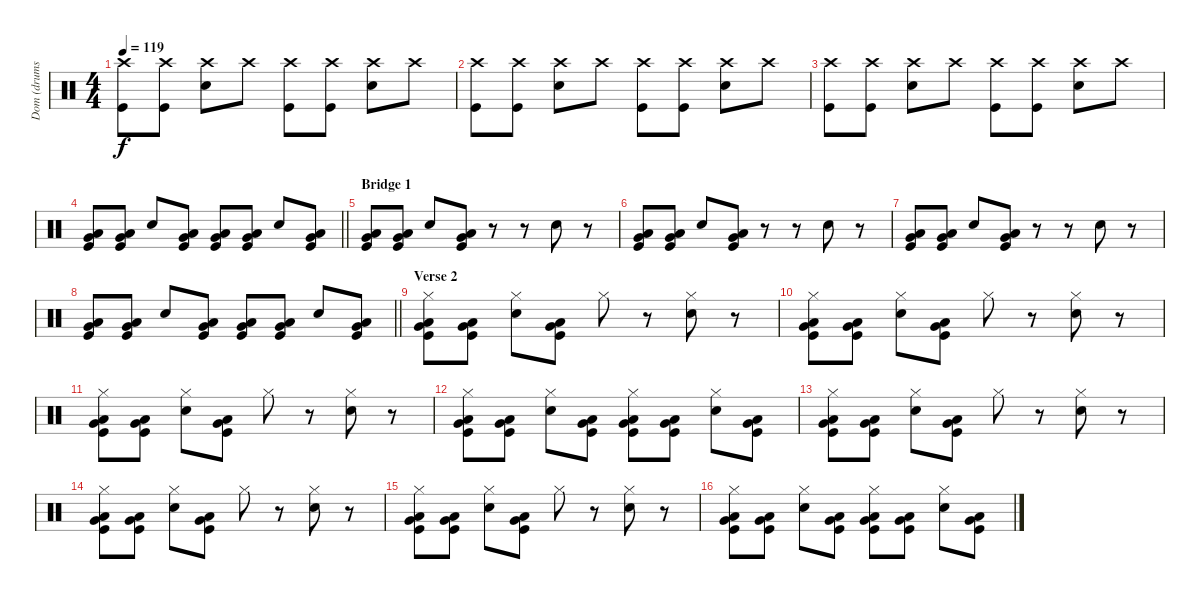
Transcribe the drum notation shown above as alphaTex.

\track ("Dom (drums)" "Dom (drums") {instrument percussion}
\staff {score}
\articulation defaults
\ts (4 4)
\tempo 119
\clef neutral
\ks c
("Crash high (hit)" "Kick (hit)").8{dy f} ("Crash high (hit)" "Kick (hit)").8 ("Crash high (hit)" "Snare (hit) 2").8 "Crash high (hit)".8 ("Crash high (hit)" "Kick (hit)").8 ("Crash high (hit)" "Kick (hit)").8 ("Crash high (hit)" "Snare (hit) 2").8 "Crash high (hit)".8 |
("Crash high (hit)" "Kick (hit)").8 ("Crash high (hit)" "Kick (hit)").8 ("Crash high (hit)" "Snare (hit) 2").8 "Crash high (hit)".8 ("Crash high (hit)" "Kick (hit)").8 ("Crash high (hit)" "Kick (hit)").8 ("Crash high (hit)" "Snare (hit) 2").8 "Crash high (hit)".8 |
("Crash high (hit)" "Kick (hit)").8 ("Crash high (hit)" "Kick (hit)").8 ("Crash high (hit)" "Snare (hit) 2").8 "Crash high (hit)".8 ("Crash high (hit)" "Kick (hit)").8 ("Crash high (hit)" "Kick (hit)").8 ("Crash high (hit)" "Snare (hit) 2").8 "Crash high (hit)".8 |
\barLineRight lightlight
("Low Tom (hit)" "Very Low Tom (hit)" "Kick (hit)").8 ("Low Tom (hit)" "Very Low Tom (hit)" "Kick (hit)").8 "Snare (hit) 2".8 ("Low Tom (hit)" "Very Low Tom (hit)" "Kick (hit)").8 ("Low Tom (hit)" "Very Low Tom (hit)" "Kick (hit)").8 ("Low Tom (hit)" "Very Low Tom (hit)" "Kick (hit)").8 "Snare (hit) 2".8 ("Low Tom (hit)" "Very Low Tom (hit)" "Kick (hit)").8 |
\section ("" "Bridge 1")
("Low Tom (hit)" "Very Low Tom (hit)" "Kick (hit)").8 ("Low Tom (hit)" "Very Low Tom (hit)" "Kick (hit)").8 "Snare (hit) 2".8 ("Low Tom (hit)" "Very Low Tom (hit)" "Kick (hit)").8 r.8 r.8 "Snare (hit) 2".8 r.8 |
("Low Tom (hit)" "Very Low Tom (hit)" "Kick (hit)").8 ("Low Tom (hit)" "Very Low Tom (hit)" "Kick (hit)").8 "Snare (hit) 2".8 ("Low Tom (hit)" "Very Low Tom (hit)" "Kick (hit)").8 r.8 r.8 "Snare (hit) 2".8 r.8 |
("Low Tom (hit)" "Very Low Tom (hit)" "Kick (hit)").8 ("Low Tom (hit)" "Very Low Tom (hit)" "Kick (hit)").8 "Snare (hit) 2".8 ("Low Tom (hit)" "Very Low Tom (hit)" "Kick (hit)").8 r.8 r.8 "Snare (hit) 2".8 r.8 |
\barLineRight lightlight
("Low Tom (hit)" "Very Low Tom (hit)" "Kick (hit)").8 ("Low Tom (hit)" "Very Low Tom (hit)" "Kick (hit)").8 "Snare (hit) 2".8 ("Low Tom (hit)" "Very Low Tom (hit)" "Kick (hit)").8 ("Low Tom (hit)" "Very Low Tom (hit)" "Kick (hit)").8 ("Low Tom (hit)" "Very Low Tom (hit)" "Kick (hit)").8 "Snare (hit) 2".8 ("Low Tom (hit)" "Very Low Tom (hit)" "Kick (hit)").8 |
\section ("" "Verse 2")
("Hi-Hat (closed)" "Low Tom (hit)" "Very Low Tom (hit)" "Kick (hit)").8 ("Low Tom (hit)" "Very Low Tom (hit)" "Kick (hit)").8 ("Hi-Hat (closed)" "Snare (hit) 2").8 ("Low Tom (hit)" "Very Low Tom (hit)" "Kick (hit)").8 "Hi-Hat (closed)".8 r.8 ("Hi-Hat (closed)" "Snare (hit) 2").8 r.8 |
("Hi-Hat (closed)" "Low Tom (hit)" "Very Low Tom (hit)" "Kick (hit)").8 ("Low Tom (hit)" "Very Low Tom (hit)" "Kick (hit)").8 ("Hi-Hat (closed)" "Snare (hit) 2").8 ("Low Tom (hit)" "Very Low Tom (hit)" "Kick (hit)").8 "Hi-Hat (closed)".8 r.8 ("Hi-Hat (closed)" "Snare (hit) 2").8 r.8 |
("Hi-Hat (closed)" "Low Tom (hit)" "Very Low Tom (hit)" "Kick (hit)").8 ("Low Tom (hit)" "Very Low Tom (hit)" "Kick (hit)").8 ("Hi-Hat (closed)" "Snare (hit) 2").8 ("Low Tom (hit)" "Very Low Tom (hit)" "Kick (hit)").8 "Hi-Hat (closed)".8 r.8 ("Hi-Hat (closed)" "Snare (hit) 2").8 r.8 |
("Hi-Hat (closed)" "Low Tom (hit)" "Very Low Tom (hit)" "Kick (hit)").8 ("Low Tom (hit)" "Very Low Tom (hit)" "Kick (hit)").8 ("Hi-Hat (closed)" "Snare (hit) 2").8 ("Low Tom (hit)" "Very Low Tom (hit)" "Kick (hit)").8 ("Hi-Hat (closed)" "Low Tom (hit)" "Very Low Tom (hit)" "Kick (hit)").8 ("Low Tom (hit)" "Very Low Tom (hit)" "Kick (hit)").8 ("Hi-Hat (closed)" "Snare (hit) 2").8 ("Low Tom (hit)" "Very Low Tom (hit)" "Kick (hit)").8 |
("Hi-Hat (closed)" "Low Tom (hit)" "Very Low Tom (hit)" "Kick (hit)").8 ("Low Tom (hit)" "Very Low Tom (hit)" "Kick (hit)").8 ("Hi-Hat (closed)" "Snare (hit) 2").8 ("Low Tom (hit)" "Very Low Tom (hit)" "Kick (hit)").8 "Hi-Hat (closed)".8 r.8 ("Hi-Hat (closed)" "Snare (hit) 2").8 r.8 |
("Hi-Hat (closed)" "Low Tom (hit)" "Very Low Tom (hit)" "Kick (hit)").8 ("Low Tom (hit)" "Very Low Tom (hit)" "Kick (hit)").8 ("Hi-Hat (closed)" "Snare (hit) 2").8 ("Low Tom (hit)" "Very Low Tom (hit)" "Kick (hit)").8 "Hi-Hat (closed)".8 r.8 ("Hi-Hat (closed)" "Snare (hit) 2").8 r.8 |
("Hi-Hat (closed)" "Low Tom (hit)" "Very Low Tom (hit)" "Kick (hit)").8 ("Low Tom (hit)" "Very Low Tom (hit)" "Kick (hit)").8 ("Hi-Hat (closed)" "Snare (hit) 2").8 ("Low Tom (hit)" "Very Low Tom (hit)" "Kick (hit)").8 "Hi-Hat (closed)".8 r.8 ("Hi-Hat (closed)" "Snare (hit) 2").8 r.8 |
("Hi-Hat (closed)" "Low Tom (hit)" "Very Low Tom (hit)" "Kick (hit)").8 ("Low Tom (hit)" "Very Low Tom (hit)" "Kick (hit)").8 ("Hi-Hat (closed)" "Snare (hit) 2").8 ("Low Tom (hit)" "Very Low Tom (hit)" "Kick (hit)").8 ("Hi-Hat (closed)" "Low Tom (hit)" "Very Low Tom (hit)" "Kick (hit)").8 ("Low Tom (hit)" "Very Low Tom (hit)" "Kick (hit)").8 ("Hi-Hat (closed)" "Snare (hit) 2").8 ("Low Tom (hit)" "Very Low Tom (hit)" "Kick (hit)").8
